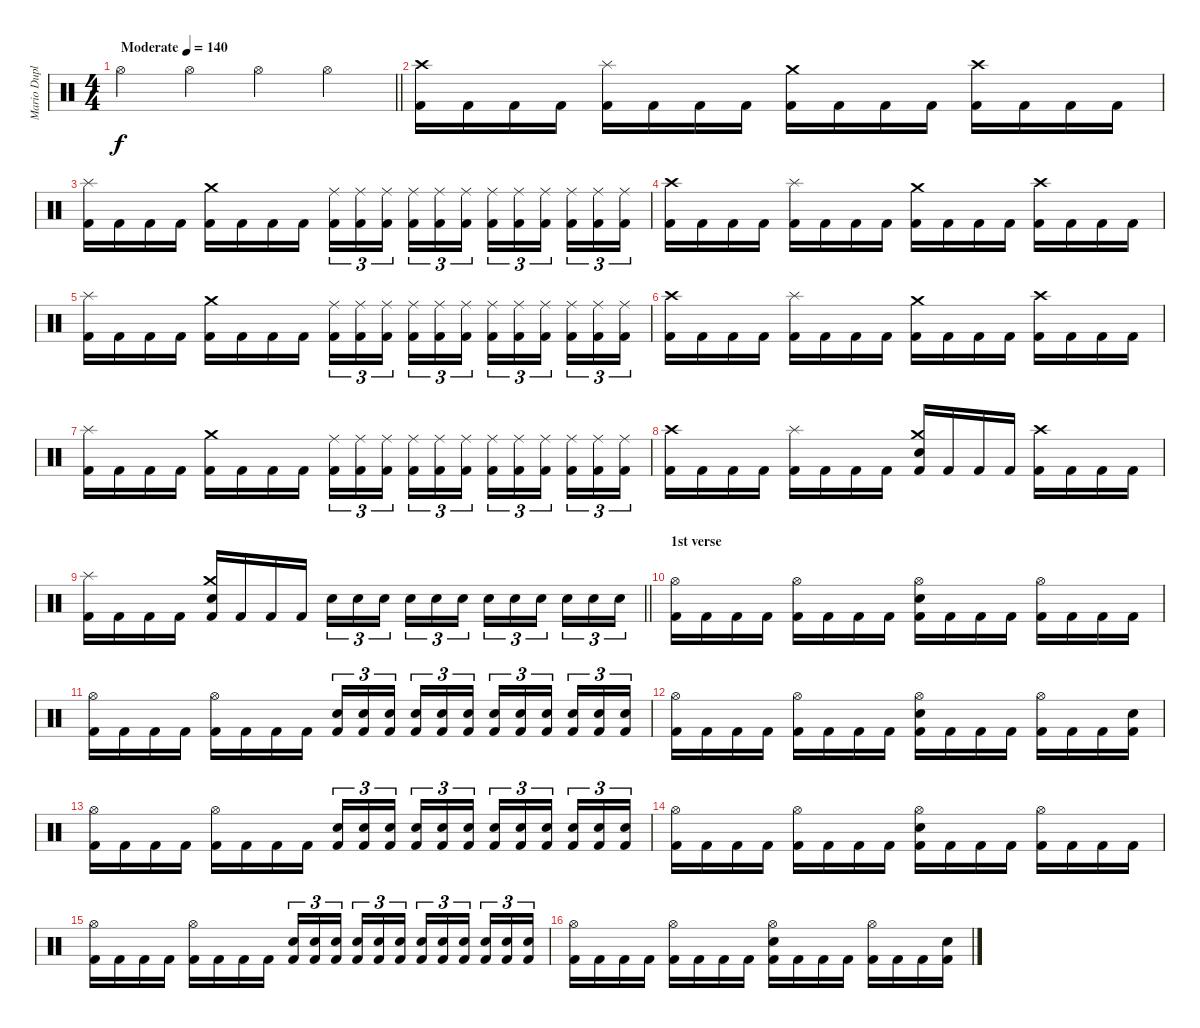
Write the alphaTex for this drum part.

\track ("Mario Duplantier" "Mario Dupl") {instrument percussion}
\staff {score}
\articulation defaults
\ts (4 4)
\tempo (140 "Moderate")
\clef neutral
\barLineRight lightlight
\ks c "Hi-Hat (open)".4{dy f} "Hi-Hat (open)".4 "Hi-Hat (open)".4 "Hi-Hat (open)".4
|
\section ("" "")
("Crash high (hit)" "Kick (hit) 2").16 "Kick (hit) 2".16 "Kick (hit) 2".16 "Kick (hit) 2".16 ("Splash (hit)" "Kick (hit) 2").16 "Kick (hit) 2".16 "Kick (hit) 2".16 "Kick (hit) 2".16 ("Crash medium (hit)" "Kick (hit) 2").16 "Kick (hit) 2".16 "Kick (hit) 2".16 "Kick (hit) 2".16 ("Crash high (hit)" "Kick (hit) 2").16 "Kick (hit) 2".16 "Kick (hit) 2".16 "Kick (hit) 2".16 |
("Splash (hit)" "Kick (hit) 2").16 "Kick (hit) 2".16 "Kick (hit) 2".16 "Kick (hit) 2".16 ("Crash medium (hit)" "Kick (hit) 2").16 "Kick (hit) 2".16 "Kick (hit) 2".16 "Kick (hit) 2".16 ("Ride (middle)" "Kick (hit) 2").16{tu (3 2)} ("Ride (middle)" "Kick (hit) 2").16{tu (3 2)} ("Ride (middle)" "Kick (hit) 2").16{tu (3 2) beam splitsecondary} ("Ride (middle)" "Kick (hit) 2").16{tu (3 2)} ("Ride (middle)" "Kick (hit) 2").16{tu (3 2)} ("Ride (middle)" "Kick (hit) 2").16{tu (3 2)} ("Ride (middle)" "Kick (hit) 2").16{tu (3 2)} ("Ride (middle)" "Kick (hit) 2").16{tu (3 2)} ("Ride (middle)" "Kick (hit) 2").16{tu (3 2) beam splitsecondary} ("Ride (middle)" "Kick (hit) 2").16{tu (3 2)} ("Ride (middle)" "Kick (hit) 2").16{tu (3 2)} ("Ride (middle)" "Kick (hit) 2").16{tu (3 2)} |
("Crash high (hit)" "Kick (hit) 2").16 "Kick (hit) 2".16 "Kick (hit) 2".16 "Kick (hit) 2".16 ("Splash (hit)" "Kick (hit) 2").16 "Kick (hit) 2".16 "Kick (hit) 2".16 "Kick (hit) 2".16 ("Crash medium (hit)" "Kick (hit) 2").16 "Kick (hit) 2".16 "Kick (hit) 2".16 "Kick (hit) 2".16 ("Crash high (hit)" "Kick (hit) 2").16 "Kick (hit) 2".16 "Kick (hit) 2".16 "Kick (hit) 2".16 |
("Splash (hit)" "Kick (hit) 2").16 "Kick (hit) 2".16 "Kick (hit) 2".16 "Kick (hit) 2".16 ("Crash medium (hit)" "Kick (hit) 2").16 "Kick (hit) 2".16 "Kick (hit) 2".16 "Kick (hit) 2".16 ("Ride (middle)" "Kick (hit) 2").16{tu (3 2)} ("Ride (middle)" "Kick (hit) 2").16{tu (3 2)} ("Ride (middle)" "Kick (hit) 2").16{tu (3 2) beam splitsecondary} ("Ride (middle)" "Kick (hit) 2").16{tu (3 2)} ("Ride (middle)" "Kick (hit) 2").16{tu (3 2)} ("Ride (middle)" "Kick (hit) 2").16{tu (3 2)} ("Ride (middle)" "Kick (hit) 2").16{tu (3 2)} ("Ride (middle)" "Kick (hit) 2").16{tu (3 2)} ("Ride (middle)" "Kick (hit) 2").16{tu (3 2) beam splitsecondary} ("Ride (middle)" "Kick (hit) 2").16{tu (3 2)} ("Ride (middle)" "Kick (hit) 2").16{tu (3 2)} ("Ride (middle)" "Kick (hit) 2").16{tu (3 2)} |
("Crash high (hit)" "Kick (hit) 2").16 "Kick (hit) 2".16 "Kick (hit) 2".16 "Kick (hit) 2".16 ("Splash (hit)" "Kick (hit) 2").16 "Kick (hit) 2".16 "Kick (hit) 2".16 "Kick (hit) 2".16 ("Crash medium (hit)" "Kick (hit) 2").16 "Kick (hit) 2".16 "Kick (hit) 2".16 "Kick (hit) 2".16 ("Crash high (hit)" "Kick (hit) 2").16 "Kick (hit) 2".16 "Kick (hit) 2".16 "Kick (hit) 2".16 |
("Splash (hit)" "Kick (hit) 2").16 "Kick (hit) 2".16 "Kick (hit) 2".16 "Kick (hit) 2".16 ("Crash medium (hit)" "Kick (hit) 2").16 "Kick (hit) 2".16 "Kick (hit) 2".16 "Kick (hit) 2".16 ("Ride (middle)" "Kick (hit) 2").16{tu (3 2)} ("Ride (middle)" "Kick (hit) 2").16{tu (3 2)} ("Ride (middle)" "Kick (hit) 2").16{tu (3 2) beam splitsecondary} ("Ride (middle)" "Kick (hit) 2").16{tu (3 2)} ("Ride (middle)" "Kick (hit) 2").16{tu (3 2)} ("Ride (middle)" "Kick (hit) 2").16{tu (3 2)} ("Ride (middle)" "Kick (hit) 2").16{tu (3 2)} ("Ride (middle)" "Kick (hit) 2").16{tu (3 2)} ("Ride (middle)" "Kick (hit) 2").16{tu (3 2) beam splitsecondary} ("Ride (middle)" "Kick (hit) 2").16{tu (3 2)} ("Ride (middle)" "Kick (hit) 2").16{tu (3 2)} ("Ride (middle)" "Kick (hit) 2").16{tu (3 2)} |
("Crash high (hit)" "Kick (hit) 2").16 "Kick (hit) 2".16 "Kick (hit) 2".16 "Kick (hit) 2".16 ("Splash (hit)" "Kick (hit) 2").16 "Kick (hit) 2".16 "Kick (hit) 2".16 "Kick (hit) 2".16 ("Crash medium (hit)" "Electric Snare (hit)" "Kick (hit) 2").16 "Kick (hit) 2".16 "Kick (hit) 2".16 "Kick (hit) 2".16 ("Crash high (hit)" "Kick (hit) 2").16 "Kick (hit) 2".16 "Kick (hit) 2".16 "Kick (hit) 2".16 |
\barLineRight lightlight
("Splash (hit)" "Kick (hit) 2").16 "Kick (hit) 2".16 "Kick (hit) 2".16 "Kick (hit) 2".16 ("Crash medium (hit)" "Electric Snare (hit)" "Kick (hit) 2").16 "Kick (hit) 2".16 "Kick (hit) 2".16 "Kick (hit) 2".16 "Snare (hit) 2".16{tu (3 2)} "Snare (hit) 2".16{tu (3 2)} "Snare (hit) 2".16{tu (3 2) beam splitsecondary} "Snare (hit) 2".16{tu (3 2)} "Snare (hit) 2".16{tu (3 2)} "Snare (hit) 2".16{tu (3 2)} "Snare (hit) 2".16{tu (3 2)} "Snare (hit) 2".16{tu (3 2)} "Snare (hit) 2".16{tu (3 2) beam splitsecondary} "Snare (hit) 2".16{tu (3 2)} "Snare (hit) 2".16{tu (3 2)} "Snare (hit) 2".16{tu (3 2)} |
\section ("" "1st verse")
("Hi-Hat (open)" "Kick (hit) 2").16 "Kick (hit) 2".16 "Kick (hit) 2".16 "Kick (hit) 2".16 ("Hi-Hat (open)" "Kick (hit) 2").16 "Kick (hit) 2".16 "Kick (hit) 2".16 "Kick (hit) 2".16 ("Hi-Hat (open)" "Electric Snare (hit)" "Kick (hit) 2").16 "Kick (hit) 2".16 "Kick (hit) 2".16 "Kick (hit) 2".16 ("Hi-Hat (open)" "Kick (hit) 2").16 "Kick (hit) 2".16 "Kick (hit) 2".16 "Kick (hit) 2".16 |
("Hi-Hat (open)" "Kick (hit) 2").16 "Kick (hit) 2".16 "Kick (hit) 2".16 "Kick (hit) 2".16 ("Hi-Hat (open)" "Kick (hit) 2").16 "Kick (hit) 2".16 "Kick (hit) 2".16 "Kick (hit) 2".16 ("Snare (hit) 2" "Kick (hit) 2").16{tu (3 2)} ("Snare (hit) 2" "Kick (hit) 2").16{tu (3 2)} ("Snare (hit) 2" "Kick (hit) 2").16{tu (3 2) beam splitsecondary} ("Snare (hit) 2" "Kick (hit) 2").16{tu (3 2)} ("Snare (hit) 2" "Kick (hit) 2").16{tu (3 2)} ("Snare (hit) 2" "Kick (hit) 2").16{tu (3 2)} ("Snare (hit) 2" "Kick (hit) 2").16{tu (3 2)} ("Snare (hit) 2" "Kick (hit) 2").16{tu (3 2)} ("Snare (hit) 2" "Kick (hit) 2").16{tu (3 2) beam splitsecondary} ("Snare (hit) 2" "Kick (hit) 2").16{tu (3 2)} ("Snare (hit) 2" "Kick (hit) 2").16{tu (3 2)} ("Snare (hit) 2" "Kick (hit) 2").16{tu (3 2)} |
("Hi-Hat (open)" "Kick (hit) 2").16 "Kick (hit) 2".16 "Kick (hit) 2".16 "Kick (hit) 2".16 ("Hi-Hat (open)" "Kick (hit) 2").16 "Kick (hit) 2".16 "Kick (hit) 2".16 "Kick (hit) 2".16 ("Hi-Hat (open)" "Electric Snare (hit)" "Kick (hit) 2").16 "Kick (hit) 2".16 "Kick (hit) 2".16 "Kick (hit) 2".16 ("Hi-Hat (open)" "Kick (hit) 2").16 "Kick (hit) 2".16 "Kick (hit) 2".16 ("Electric Snare (hit)" "Kick (hit) 2").16 |
("Hi-Hat (open)" "Kick (hit) 2").16 "Kick (hit) 2".16 "Kick (hit) 2".16 "Kick (hit) 2".16 ("Hi-Hat (open)" "Kick (hit) 2").16 "Kick (hit) 2".16 "Kick (hit) 2".16 "Kick (hit) 2".16 ("Snare (hit) 2" "Kick (hit) 2").16{tu (3 2)} ("Snare (hit) 2" "Kick (hit) 2").16{tu (3 2)} ("Snare (hit) 2" "Kick (hit) 2").16{tu (3 2) beam splitsecondary} ("Snare (hit) 2" "Kick (hit) 2").16{tu (3 2)} ("Snare (hit) 2" "Kick (hit) 2").16{tu (3 2)} ("Snare (hit) 2" "Kick (hit) 2").16{tu (3 2)} ("Snare (hit) 2" "Kick (hit) 2").16{tu (3 2)} ("Snare (hit) 2" "Kick (hit) 2").16{tu (3 2)} ("Snare (hit) 2" "Kick (hit) 2").16{tu (3 2) beam splitsecondary} ("Snare (hit) 2" "Kick (hit) 2").16{tu (3 2)} ("Snare (hit) 2" "Kick (hit) 2").16{tu (3 2)} ("Snare (hit) 2" "Kick (hit) 2").16{tu (3 2)} |
("Hi-Hat (open)" "Kick (hit) 2").16 "Kick (hit) 2".16 "Kick (hit) 2".16 "Kick (hit) 2".16 ("Hi-Hat (open)" "Kick (hit) 2").16 "Kick (hit) 2".16 "Kick (hit) 2".16 "Kick (hit) 2".16 ("Hi-Hat (open)" "Electric Snare (hit)" "Kick (hit) 2").16 "Kick (hit) 2".16 "Kick (hit) 2".16 "Kick (hit) 2".16 ("Hi-Hat (open)" "Kick (hit) 2").16 "Kick (hit) 2".16 "Kick (hit) 2".16 "Kick (hit) 2".16 |
("Hi-Hat (open)" "Kick (hit) 2").16 "Kick (hit) 2".16 "Kick (hit) 2".16 "Kick (hit) 2".16 ("Hi-Hat (open)" "Kick (hit) 2").16 "Kick (hit) 2".16 "Kick (hit) 2".16 "Kick (hit) 2".16 ("Snare (hit) 2" "Kick (hit) 2").16{tu (3 2)} ("Snare (hit) 2" "Kick (hit) 2").16{tu (3 2)} ("Snare (hit) 2" "Kick (hit) 2").16{tu (3 2) beam splitsecondary} ("Snare (hit) 2" "Kick (hit) 2").16{tu (3 2)} ("Snare (hit) 2" "Kick (hit) 2").16{tu (3 2)} ("Snare (hit) 2" "Kick (hit) 2").16{tu (3 2)} ("Snare (hit) 2" "Kick (hit) 2").16{tu (3 2)} ("Snare (hit) 2" "Kick (hit) 2").16{tu (3 2)} ("Snare (hit) 2" "Kick (hit) 2").16{tu (3 2) beam splitsecondary} ("Snare (hit) 2" "Kick (hit) 2").16{tu (3 2)} ("Snare (hit) 2" "Kick (hit) 2").16{tu (3 2)} ("Snare (hit) 2" "Kick (hit) 2").16{tu (3 2)} |
("Hi-Hat (open)" "Kick (hit) 2").16 "Kick (hit) 2".16 "Kick (hit) 2".16 "Kick (hit) 2".16 ("Hi-Hat (open)" "Kick (hit) 2").16 "Kick (hit) 2".16 "Kick (hit) 2".16 "Kick (hit) 2".16 ("Hi-Hat (open)" "Electric Snare (hit)" "Kick (hit) 2").16 "Kick (hit) 2".16 "Kick (hit) 2".16 "Kick (hit) 2".16 ("Hi-Hat (open)" "Kick (hit) 2").16 "Kick (hit) 2".16 "Kick (hit) 2".16 ("Electric Snare (hit)" "Kick (hit) 2").16
